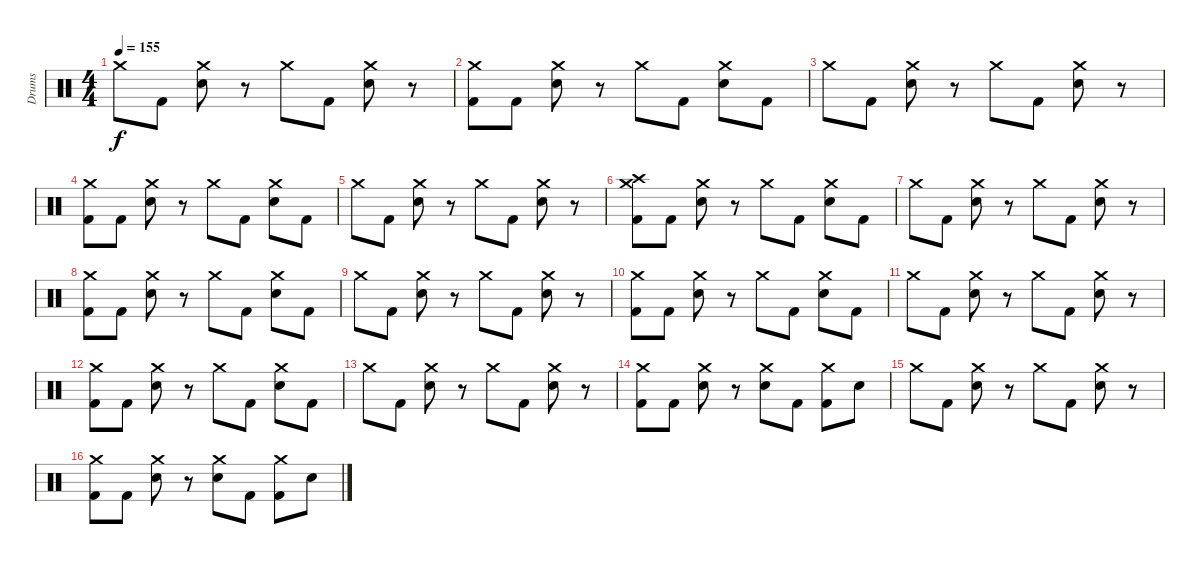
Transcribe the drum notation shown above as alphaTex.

\track ("Drums" "Drums") {instrument percussion}
\staff {score}
\articulation defaults
\ts (4 4)
\tempo 155
\clef neutral
\ks c "Crash medium (hit)".8{dy f} "Kick (hit) 2".8
("Crash medium (hit)" "Electric Snare (hit)").8 r.8 "Crash medium (hit)".8 "Kick (hit) 2".8 ("Crash medium (hit)" "Electric Snare (hit)").8 r.8 |
("Crash medium (hit)" "Kick (hit) 2").8 "Kick (hit) 2".8 ("Crash medium (hit)" "Electric Snare (hit)").8 r.8 "Crash medium (hit)".8 "Kick (hit) 2".8 ("Crash medium (hit)" "Electric Snare (hit)").8 "Kick (hit) 2".8 |
"Crash medium (hit)".8 "Kick (hit) 2".8 ("Crash medium (hit)" "Electric Snare (hit)").8 r.8 "Crash medium (hit)".8 "Kick (hit) 2".8 ("Crash medium (hit)" "Electric Snare (hit)").8 r.8 |
("Crash medium (hit)" "Kick (hit) 2").8 "Kick (hit) 2".8 ("Crash medium (hit)" "Electric Snare (hit)").8 r.8 "Crash medium (hit)".8 "Kick (hit) 2".8 ("Crash medium (hit)" "Electric Snare (hit)").8 "Kick (hit) 2".8 |
"Crash medium (hit)".8 "Kick (hit) 2".8 ("Crash medium (hit)" "Electric Snare (hit)").8 r.8 "Crash medium (hit)".8 "Kick (hit) 2".8 ("Crash medium (hit)" "Electric Snare (hit)").8 r.8 |
("Crash high (hit)" "Crash medium (hit)" "Kick (hit) 2").8 "Kick (hit) 2".8 ("Crash medium (hit)" "Electric Snare (hit)").8 r.8 "Crash medium (hit)".8 "Kick (hit) 2".8 ("Crash medium (hit)" "Electric Snare (hit)").8 "Kick (hit) 2".8 |
"Crash medium (hit)".8 "Kick (hit) 2".8 ("Crash medium (hit)" "Electric Snare (hit)").8 r.8 "Crash medium (hit)".8 "Kick (hit) 2".8 ("Crash medium (hit)" "Electric Snare (hit)").8 r.8 |
("Crash medium (hit)" "Kick (hit) 2").8 "Kick (hit) 2".8 ("Crash medium (hit)" "Electric Snare (hit)").8 r.8 "Crash medium (hit)".8 "Kick (hit) 2".8 ("Crash medium (hit)" "Electric Snare (hit)").8 "Kick (hit) 2".8 |
"Crash medium (hit)".8 "Kick (hit) 2".8 ("Crash medium (hit)" "Electric Snare (hit)").8 r.8 "Crash medium (hit)".8 "Kick (hit) 2".8 ("Crash medium (hit)" "Electric Snare (hit)").8 r.8 |
("Crash medium (hit)" "Kick (hit) 2").8 "Kick (hit) 2".8 ("Crash medium (hit)" "Electric Snare (hit)").8 r.8 "Crash medium (hit)".8 "Kick (hit) 2".8 ("Crash medium (hit)" "Electric Snare (hit)").8 "Kick (hit) 2".8 |
"Crash medium (hit)".8 "Kick (hit) 2".8 ("Crash medium (hit)" "Electric Snare (hit)").8 r.8 "Crash medium (hit)".8 "Kick (hit) 2".8 ("Crash medium (hit)" "Electric Snare (hit)").8 r.8 |
("Crash medium (hit)" "Kick (hit) 2").8 "Kick (hit) 2".8 ("Crash medium (hit)" "Electric Snare (hit)").8 r.8 "Crash medium (hit)".8 "Kick (hit) 2".8 ("Crash medium (hit)" "Electric Snare (hit)").8 "Kick (hit) 2".8 |
"Crash medium (hit)".8 "Kick (hit) 2".8 ("Crash medium (hit)" "Electric Snare (hit)").8 r.8 "Crash medium (hit)".8 "Kick (hit) 2".8 ("Crash medium (hit)" "Electric Snare (hit)").8 r.8 |
("Crash medium (hit)" "Kick (hit) 2").8 "Kick (hit) 2".8 ("Crash medium (hit)" "Electric Snare (hit)").8 r.8 ("Crash medium (hit)" "Electric Snare (hit)").8 "Kick (hit) 2".8 ("Crash medium (hit)" "Kick (hit) 2").8 "Electric Snare (hit)".8 |
"Crash medium (hit)".8 "Kick (hit) 2".8 ("Crash medium (hit)" "Electric Snare (hit)").8 r.8 "Crash medium (hit)".8 "Kick (hit) 2".8 ("Crash medium (hit)" "Electric Snare (hit)").8 r.8 |
("Crash medium (hit)" "Kick (hit) 2").8 "Kick (hit) 2".8 ("Crash medium (hit)" "Electric Snare (hit)").8 r.8 ("Crash medium (hit)" "Electric Snare (hit)").8 "Kick (hit) 2".8 ("Crash medium (hit)" "Kick (hit) 2").8 "Electric Snare (hit)".8
